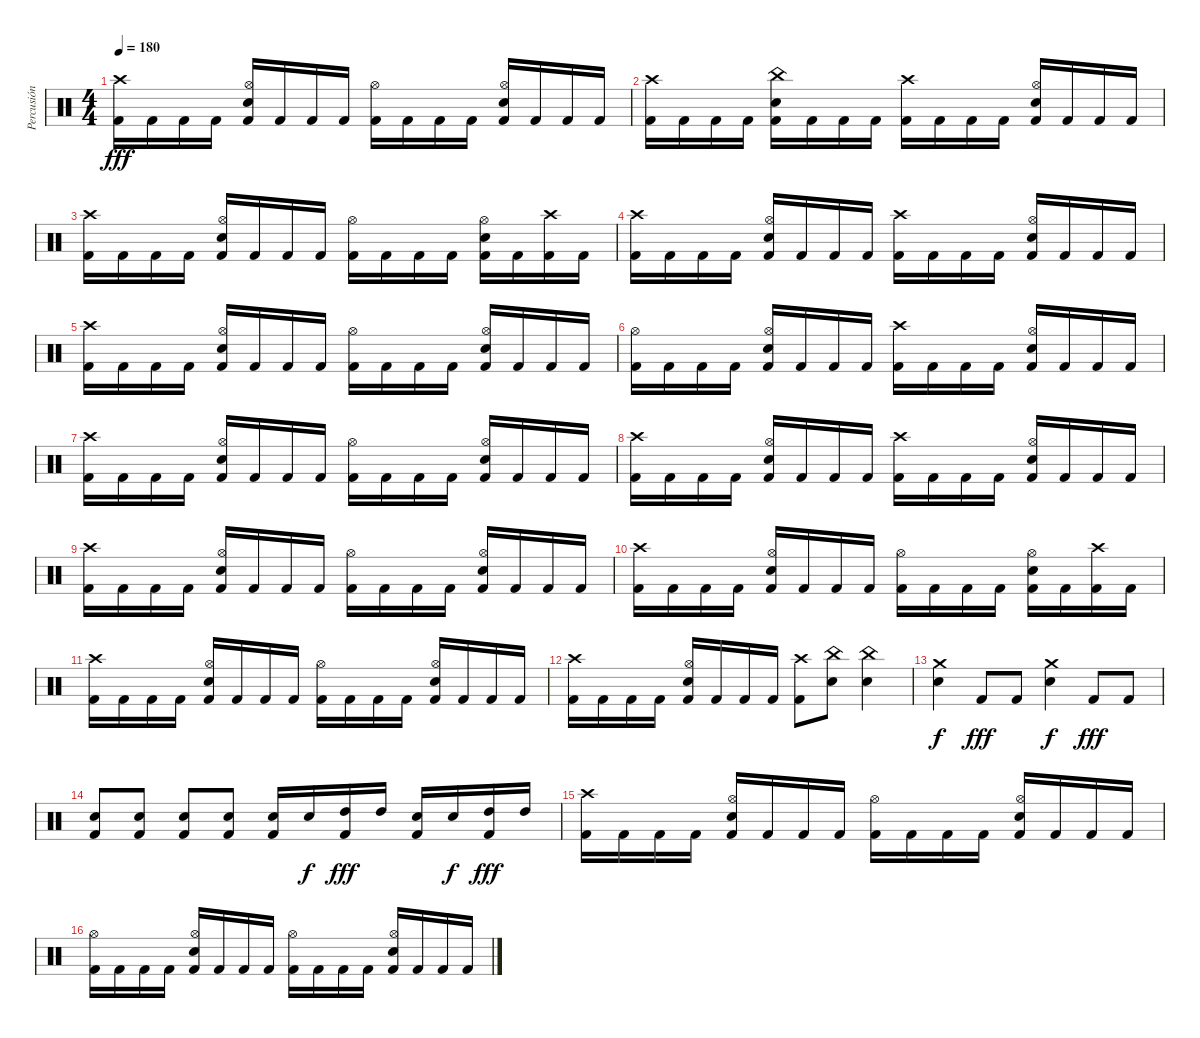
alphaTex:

\track ("Percusión" "Percusión") {instrument percussion}
\staff {score}
\articulation defaults
\ts (4 4)
\tempo 180
\clef neutral
\ks c
("Crash high (hit)" "Kick (hit) 2").16{dy fff} "Kick (hit) 2".16 "Kick (hit) 2".16 "Kick (hit) 2".16 ("Hi-Hat (open)" "Electric Snare (hit)" "Kick (hit) 2").16 "Kick (hit) 2".16 "Kick (hit) 2".16 "Kick (hit) 2".16 ("Hi-Hat (open)" "Kick (hit) 2").16 "Kick (hit) 2".16 "Kick (hit) 2".16 "Kick (hit) 2".16 ("Hi-Hat (open)" "Electric Snare (hit)" "Kick (hit) 2").16 "Kick (hit) 2".16 "Kick (hit) 2".16 "Kick (hit) 2".16 |
("Crash high (hit)" "Kick (hit) 2").16 "Kick (hit) 2".16 "Kick (hit) 2".16 "Kick (hit) 2".16 ("China (hit)" "Electric Snare (hit)" "Kick (hit) 2").16 "Kick (hit) 2".16 "Kick (hit) 2".16 "Kick (hit) 2".16 ("Crash high (hit)" "Kick (hit) 2").16 "Kick (hit) 2".16 "Kick (hit) 2".16 "Kick (hit) 2".16 ("Hi-Hat (open)" "Electric Snare (hit)" "Kick (hit) 2").16 "Kick (hit) 2".16 "Kick (hit) 2".16 "Kick (hit) 2".16 |
("Crash high (hit)" "Kick (hit) 2").16 "Kick (hit) 2".16 "Kick (hit) 2".16 "Kick (hit) 2".16 ("Hi-Hat (open)" "Electric Snare (hit)" "Kick (hit) 2").16 "Kick (hit) 2".16 "Kick (hit) 2".16 "Kick (hit) 2".16 ("Hi-Hat (open)" "Kick (hit) 2").16 "Kick (hit) 2".16 "Kick (hit) 2".16 "Kick (hit) 2".16 ("Hi-Hat (open)" "Electric Snare (hit)" "Kick (hit) 2").16 "Kick (hit) 2".16 ("Crash high (hit)" "Kick (hit) 2").16 "Kick (hit) 2".16 |
("Crash high (hit)" "Kick (hit) 2").16 "Kick (hit) 2".16 "Kick (hit) 2".16 "Kick (hit) 2".16 ("Hi-Hat (open)" "Electric Snare (hit)" "Kick (hit) 2").16 "Kick (hit) 2".16 "Kick (hit) 2".16 "Kick (hit) 2".16 ("Crash high (hit)" "Kick (hit) 2").16 "Kick (hit) 2".16 "Kick (hit) 2".16 "Kick (hit) 2".16 ("Hi-Hat (open)" "Electric Snare (hit)" "Kick (hit) 2").16 "Kick (hit) 2".16 "Kick (hit) 2".16 "Kick (hit) 2".16 |
("Crash high (hit)" "Kick (hit) 2").16 "Kick (hit) 2".16 "Kick (hit) 2".16 "Kick (hit) 2".16 ("Hi-Hat (open)" "Electric Snare (hit)" "Kick (hit) 2").16 "Kick (hit) 2".16 "Kick (hit) 2".16 "Kick (hit) 2".16 ("Hi-Hat (open)" "Kick (hit) 2").16 "Kick (hit) 2".16 "Kick (hit) 2".16 "Kick (hit) 2".16 ("Hi-Hat (open)" "Electric Snare (hit)" "Kick (hit) 2").16 "Kick (hit) 2".16 "Kick (hit) 2".16 "Kick (hit) 2".16 |
("Hi-Hat (open)" "Kick (hit) 2").16 "Kick (hit) 2".16 "Kick (hit) 2".16 "Kick (hit) 2".16 ("Hi-Hat (open)" "Electric Snare (hit)" "Kick (hit) 2").16 "Kick (hit) 2".16 "Kick (hit) 2".16 "Kick (hit) 2".16 ("Crash high (hit)" "Kick (hit) 2").16 "Kick (hit) 2".16 "Kick (hit) 2".16 "Kick (hit) 2".16 ("Hi-Hat (open)" "Electric Snare (hit)" "Kick (hit) 2").16 "Kick (hit) 2".16 "Kick (hit) 2".16 "Kick (hit) 2".16 |
("Crash high (hit)" "Kick (hit) 2").16 "Kick (hit) 2".16 "Kick (hit) 2".16 "Kick (hit) 2".16 ("Hi-Hat (open)" "Electric Snare (hit)" "Kick (hit) 2").16 "Kick (hit) 2".16 "Kick (hit) 2".16 "Kick (hit) 2".16 ("Hi-Hat (open)" "Kick (hit) 2").16 "Kick (hit) 2".16 "Kick (hit) 2".16 "Kick (hit) 2".16 ("Hi-Hat (open)" "Electric Snare (hit)" "Kick (hit) 2").16 "Kick (hit) 2".16 "Kick (hit) 2".16 "Kick (hit) 2".16 |
("Crash high (hit)" "Kick (hit) 2").16 "Kick (hit) 2".16 "Kick (hit) 2".16 "Kick (hit) 2".16 ("Hi-Hat (open)" "Electric Snare (hit)" "Kick (hit) 2").16 "Kick (hit) 2".16 "Kick (hit) 2".16 "Kick (hit) 2".16 ("Crash high (hit)" "Kick (hit) 2").16 "Kick (hit) 2".16 "Kick (hit) 2".16 "Kick (hit) 2".16 ("Hi-Hat (open)" "Electric Snare (hit)" "Kick (hit) 2").16 "Kick (hit) 2".16 "Kick (hit) 2".16 "Kick (hit) 2".16 |
("Crash high (hit)" "Kick (hit) 2").16 "Kick (hit) 2".16 "Kick (hit) 2".16 "Kick (hit) 2".16 ("Hi-Hat (open)" "Electric Snare (hit)" "Kick (hit) 2").16 "Kick (hit) 2".16 "Kick (hit) 2".16 "Kick (hit) 2".16 ("Hi-Hat (open)" "Kick (hit) 2").16 "Kick (hit) 2".16 "Kick (hit) 2".16 "Kick (hit) 2".16 ("Hi-Hat (open)" "Electric Snare (hit)" "Kick (hit) 2").16 "Kick (hit) 2".16 "Kick (hit) 2".16 "Kick (hit) 2".16 |
("Crash high (hit)" "Kick (hit) 2").16 "Kick (hit) 2".16 "Kick (hit) 2".16 "Kick (hit) 2".16 ("Hi-Hat (open)" "Electric Snare (hit)" "Kick (hit) 2").16 "Kick (hit) 2".16 "Kick (hit) 2".16 "Kick (hit) 2".16 ("Hi-Hat (open)" "Kick (hit) 2").16 "Kick (hit) 2".16 "Kick (hit) 2".16 "Kick (hit) 2".16 ("Hi-Hat (open)" "Electric Snare (hit)" "Kick (hit) 2").16 "Kick (hit) 2".16 ("Crash high (hit)" "Kick (hit) 2").16 "Kick (hit) 2".16 |
("Crash high (hit)" "Kick (hit) 2").16 "Kick (hit) 2".16 "Kick (hit) 2".16 "Kick (hit) 2".16 ("Hi-Hat (open)" "Electric Snare (hit)" "Kick (hit) 2").16 "Kick (hit) 2".16 "Kick (hit) 2".16 "Kick (hit) 2".16 ("Hi-Hat (open)" "Kick (hit) 2").16 "Kick (hit) 2".16 "Kick (hit) 2".16 "Kick (hit) 2".16 ("Hi-Hat (open)" "Electric Snare (hit)" "Kick (hit) 2").16 "Kick (hit) 2".16 "Kick (hit) 2".16 "Kick (hit) 2".16 |
("Crash high (hit)" "Kick (hit) 2").16 "Kick (hit) 2".16 "Kick (hit) 2".16 "Kick (hit) 2".16 ("Hi-Hat (open)" "Electric Snare (hit)" "Kick (hit) 2").16 "Kick (hit) 2".16 "Kick (hit) 2".16 "Kick (hit) 2".16 ("Crash high (hit)" "Kick (hit) 2").8 ("China (hit)" "Electric Snare (hit)").8 ("China (hit)" "Electric Snare (hit)").4 |
("Crash medium (hit)" "Electric Snare (hit)").4{dy f} "Kick (hit) 2".8{dy fff} "Kick (hit) 2".8 ("Crash medium (hit)" "Electric Snare (hit)").4{dy f} "Kick (hit) 2".8{dy fff} "Kick (hit) 2".8 |
("Electric Snare (hit)" "Kick (hit) 2").8 ("Electric Snare (hit)" "Kick (hit) 2").8 ("Electric Snare (hit)" "Kick (hit) 2").8 ("Electric Snare (hit)" "Kick (hit) 2").8 ("Electric Snare (hit)" "Kick (hit) 2").16 "Electric Snare (hit)".16{dy f} ("High Tom (hit)" "Kick (hit) 2").16{dy fff} "High Tom (hit)".16 ("Electric Snare (hit)" "Kick (hit) 2").16 "Electric Snare (hit)".16{dy f} ("High Tom (hit)" "Kick (hit) 2").16{dy fff} "High Tom (hit)".16 |
("Crash high (hit)" "Kick (hit) 2").16 "Kick (hit) 2".16 "Kick (hit) 2".16 "Kick (hit) 2".16 ("Hi-Hat (open)" "Electric Snare (hit)" "Kick (hit) 2").16 "Kick (hit) 2".16 "Kick (hit) 2".16 "Kick (hit) 2".16 ("Hi-Hat (open)" "Kick (hit) 2").16 "Kick (hit) 2".16 "Kick (hit) 2".16 "Kick (hit) 2".16 ("Hi-Hat (open)" "Electric Snare (hit)" "Kick (hit) 2").16 "Kick (hit) 2".16 "Kick (hit) 2".16 "Kick (hit) 2".16 |
("Hi-Hat (open)" "Kick (hit) 2").16 "Kick (hit) 2".16 "Kick (hit) 2".16 "Kick (hit) 2".16 ("Hi-Hat (open)" "Electric Snare (hit)" "Kick (hit) 2").16 "Kick (hit) 2".16 "Kick (hit) 2".16 "Kick (hit) 2".16 ("Hi-Hat (open)" "Kick (hit) 2").16 "Kick (hit) 2".16 "Kick (hit) 2".16 "Kick (hit) 2".16 ("Hi-Hat (open)" "Electric Snare (hit)" "Kick (hit) 2").16 "Kick (hit) 2".16 "Kick (hit) 2".16 "Kick (hit) 2".16
